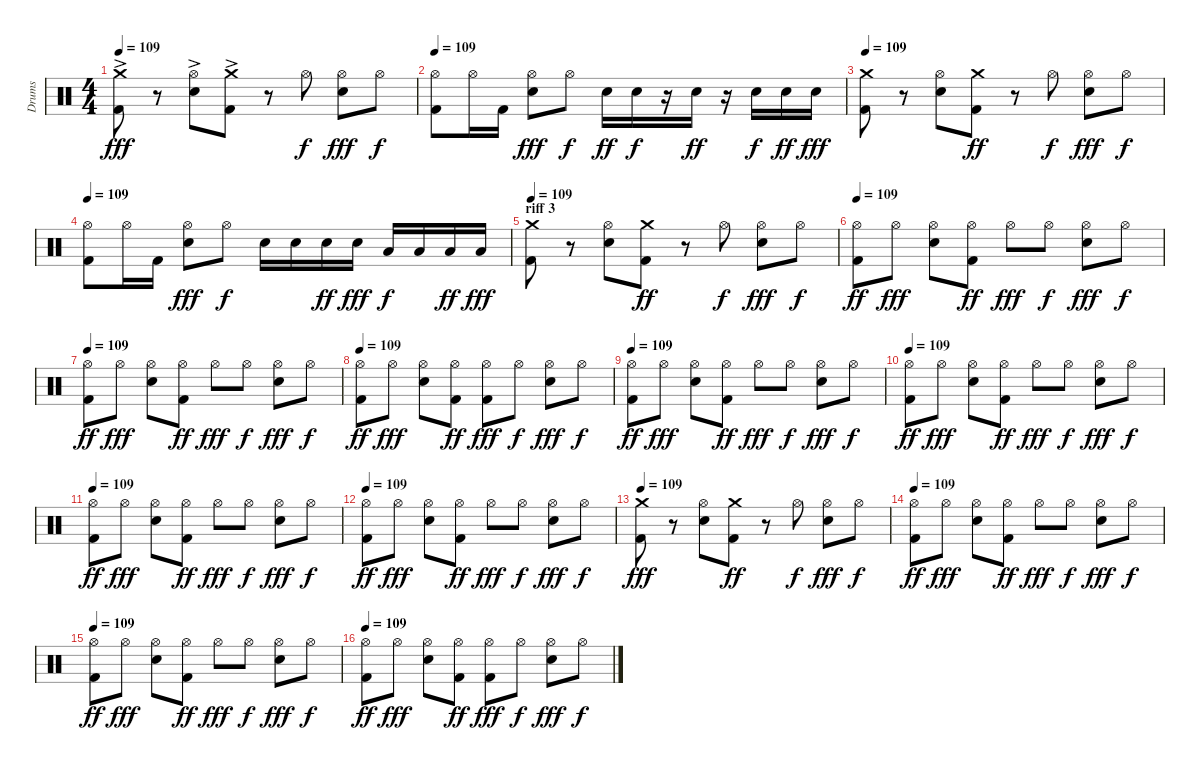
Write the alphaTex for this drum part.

\track ("Drums" "Drums") {instrument percussion}
\staff {score}
\articulation defaults
\ts (4 4)
\tempo 109
\clef neutral
\ks c
("Kick (hit) 2"{ac} "Crash medium (hit)"{ac}).8{dy fff} r.8 ("Snare (hit) 2"{ac} "Hi-Hat (open)"{ac}).8 ("Crash medium (hit)"{ac} "Kick (hit) 2"{ac}).8 r.8 "Hi-Hat (open)".8{dy f} ("Snare (hit) 2" "Hi-Hat (open)").8{dy fff} "Hi-Hat (open)".8{dy f} |
\tempo 109
("Kick (hit) 2" "Hi-Hat (open)").8 "Hi-Hat (open)".16 "Kick (hit) 2".16 ("Snare (hit) 2" "Hi-Hat (open)").8{dy fff} "Hi-Hat (open)".8{dy f} "Snare (hit) 2".16{dy ff} "Snare (hit) 2".16{dy f} r.16 "Snare (hit) 2".16{dy ff} r.16 "Snare (hit) 2".16{dy f} "Snare (hit) 2".16{dy ff} "Snare (hit) 2".16{dy fff} |
\tempo 109
("Kick (hit) 2" "Crash medium (hit)").8 r.8 ("Snare (hit) 2" "Hi-Hat (open)").8 ("Crash medium (hit)" "Kick (hit) 2").8{dy ff} r.8 "Hi-Hat (open)".8{dy f} ("Snare (hit) 2" "Hi-Hat (open)").8{dy fff} "Hi-Hat (open)".8{dy f} |
\tempo 109
("Kick (hit) 2" "Hi-Hat (open)").8 "Hi-Hat (open)".16 "Kick (hit) 2".16 ("Snare (hit) 2" "Hi-Hat (open)").8{dy fff} "Hi-Hat (open)".8{dy f} "Snare (hit) 2".16 "Snare (hit) 2".16 "Snare (hit) 2".16{dy ff} "Snare (hit) 2".16{dy fff} "Low Tom (hit)".16{dy f} "Low Tom (hit)".16 "Low Tom (hit)".16{dy ff} "Low Tom (hit)".16{dy fff} |
\section ("" "riff 3")
\tempo 109
("Kick (hit) 2" "Crash medium (hit)").8 r.8 ("Snare (hit) 2" "Hi-Hat (open)").8 ("Crash medium (hit)" "Kick (hit) 2").8{dy ff} r.8 "Hi-Hat (open)".8{dy f} ("Snare (hit) 2" "Hi-Hat (open)").8{dy fff} "Hi-Hat (open)".8{dy f} |
\tempo 109
("Hi-Hat (open)" "Kick (hit) 2").8{dy ff} "Hi-Hat (open)".8{dy fff} ("Snare (hit) 2" "Hi-Hat (open)").8 ("Hi-Hat (open)" "Kick (hit) 2").8{dy ff} "Hi-Hat (open)".8{dy fff} "Hi-Hat (open)".8{dy f} ("Snare (hit) 2" "Hi-Hat (open)").8{dy fff} "Hi-Hat (open)".8{dy f} |
\tempo 109
("Hi-Hat (open)" "Kick (hit) 2").8{dy ff} "Hi-Hat (open)".8{dy fff} ("Snare (hit) 2" "Hi-Hat (open)").8 ("Hi-Hat (open)" "Kick (hit) 2").8{dy ff} "Hi-Hat (open)".8{dy fff} "Hi-Hat (open)".8{dy f} ("Snare (hit) 2" "Hi-Hat (open)").8{dy fff} "Hi-Hat (open)".8{dy f} |
\tempo 109
("Hi-Hat (open)" "Kick (hit) 2").8{dy ff} "Hi-Hat (open)".8{dy fff} ("Snare (hit) 2" "Hi-Hat (open)").8 ("Hi-Hat (open)" "Kick (hit) 2").8{dy ff} ("Kick (hit) 2" "Hi-Hat (open)").8{dy fff} "Hi-Hat (open)".8{dy f} ("Snare (hit) 2" "Hi-Hat (open)").8{dy fff} "Hi-Hat (open)".8{dy f} |
\tempo 109
("Hi-Hat (open)" "Kick (hit) 2").8{dy ff} "Hi-Hat (open)".8{dy fff} ("Snare (hit) 2" "Hi-Hat (open)").8 ("Hi-Hat (open)" "Kick (hit) 2").8{dy ff} "Hi-Hat (open)".8{dy fff} "Hi-Hat (open)".8{dy f} ("Snare (hit) 2" "Hi-Hat (open)").8{dy fff} "Hi-Hat (open)".8{dy f} |
\tempo 109
("Hi-Hat (open)" "Kick (hit) 2").8{dy ff} "Hi-Hat (open)".8{dy fff} ("Snare (hit) 2" "Hi-Hat (open)").8 ("Hi-Hat (open)" "Kick (hit) 2").8{dy ff} "Hi-Hat (open)".8{dy fff} "Hi-Hat (open)".8{dy f} ("Snare (hit) 2" "Hi-Hat (open)").8{dy fff} "Hi-Hat (open)".8{dy f} |
\tempo 109
("Hi-Hat (open)" "Kick (hit) 2").8{dy ff} "Hi-Hat (open)".8{dy fff} ("Snare (hit) 2" "Hi-Hat (open)").8 ("Hi-Hat (open)" "Kick (hit) 2").8{dy ff} "Hi-Hat (open)".8{dy fff} "Hi-Hat (open)".8{dy f} ("Snare (hit) 2" "Hi-Hat (open)").8{dy fff} "Hi-Hat (open)".8{dy f} |
\tempo 109
("Hi-Hat (open)" "Kick (hit) 2").8{dy ff} "Hi-Hat (open)".8{dy fff} ("Snare (hit) 2" "Hi-Hat (open)").8 ("Hi-Hat (open)" "Kick (hit) 2").8{dy ff} "Hi-Hat (open)".8{dy fff} "Hi-Hat (open)".8{dy f} ("Snare (hit) 2" "Hi-Hat (open)").8{dy fff} "Hi-Hat (open)".8{dy f} |
\tempo 109
("Kick (hit) 2" "Crash medium (hit)").8{dy fff} r.8 ("Snare (hit) 2" "Hi-Hat (open)").8 ("Crash medium (hit)" "Kick (hit) 2").8{dy ff} r.8 "Hi-Hat (open)".8{dy f} ("Snare (hit) 2" "Hi-Hat (open)").8{dy fff} "Hi-Hat (open)".8{dy f} |
\tempo 109
("Hi-Hat (open)" "Kick (hit) 2").8{dy ff} "Hi-Hat (open)".8{dy fff} ("Snare (hit) 2" "Hi-Hat (open)").8 ("Hi-Hat (open)" "Kick (hit) 2").8{dy ff} "Hi-Hat (open)".8{dy fff} "Hi-Hat (open)".8{dy f} ("Snare (hit) 2" "Hi-Hat (open)").8{dy fff} "Hi-Hat (open)".8{dy f} |
\tempo 109
("Hi-Hat (open)" "Kick (hit) 2").8{dy ff} "Hi-Hat (open)".8{dy fff} ("Snare (hit) 2" "Hi-Hat (open)").8 ("Hi-Hat (open)" "Kick (hit) 2").8{dy ff} "Hi-Hat (open)".8{dy fff} "Hi-Hat (open)".8{dy f} ("Snare (hit) 2" "Hi-Hat (open)").8{dy fff} "Hi-Hat (open)".8{dy f} |
\tempo 109
("Hi-Hat (open)" "Kick (hit) 2").8{dy ff} "Hi-Hat (open)".8{dy fff} ("Snare (hit) 2" "Hi-Hat (open)").8 ("Hi-Hat (open)" "Kick (hit) 2").8{dy ff} ("Kick (hit) 2" "Hi-Hat (open)").8{dy fff} "Hi-Hat (open)".8{dy f} ("Snare (hit) 2" "Hi-Hat (open)").8{dy fff} "Hi-Hat (open)".8{dy f}
